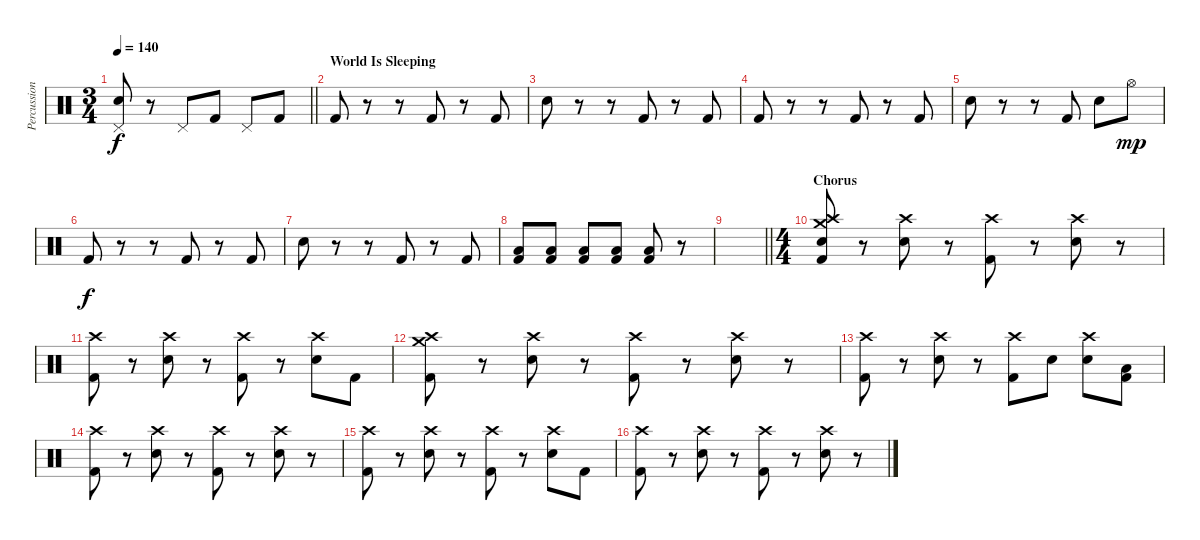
\track ("Percussion" "Percussion") {instrument percussion}
\staff {score}
\articulation defaults
\ts (3 4)
\tempo 140
\clef neutral
\barLineRight lightlight
\ks c
("Pedal Hi-Hat (hit)" "Electric Snare (hit)").8{dy f} r.8 "Pedal Hi-Hat (hit)".8 "Kick (hit) 2".8 "Pedal Hi-Hat (hit)".8 "Kick (hit) 2".8 |
\section ("" "World Is Sleeping")
"Kick (hit) 2".8 r.8 r.8 "Kick (hit) 2".8 r.8 "Kick (hit) 2".8 |
"Electric Snare (hit)".8 r.8 r.8 "Kick (hit) 2".8 r.8 "Kick (hit) 2".8 |
"Kick (hit) 2".8 r.8 r.8 "Kick (hit) 2".8 r.8 "Kick (hit) 2".8 |
"Electric Snare (hit)".8 r.8 r.8 "Kick (hit) 2".8 "Electric Snare (hit)".8 "Hi-Hat (open)".8{dy mp} |
"Kick (hit) 2".8{dy f} r.8 r.8 "Kick (hit) 2".8 r.8 "Kick (hit) 2".8 |
"Electric Snare (hit)".8 r.8 r.8 "Kick (hit) 2".8 r.8 "Kick (hit) 2".8 |
("Low Floor Tom (hit)" "Kick (hit) 2").8 ("Low Floor Tom (hit)" "Kick (hit) 2").8 ("Low Floor Tom (hit)" "Kick (hit) 2").8 ("Low Floor Tom (hit)" "Kick (hit) 2").8 ("Low Floor Tom (hit)" "Kick (hit) 2").8 r.8 |
\barLineRight lightlight
|
\ts (4 4)
\section ("" "Chorus")
("Crash high (hit)" "Crash medium (hit)" "Snare (hit)" "Kick (hit) 2").8 r.8 ("Electric Snare (hit)" "Crash high (hit)").8 r.8 ("Crash high (hit)" "Kick (hit) 2").8 r.8 ("Electric Snare (hit)" "Crash high (hit)").8 r.8 |
("Crash high (hit)" "Kick (hit) 2").8 r.8 ("Electric Snare (hit)" "Crash high (hit)").8 r.8 ("Crash high (hit)" "Kick (hit) 2").8 r.8 ("Electric Snare (hit)" "Crash high (hit)").8 "Kick (hit) 2".8 |
("Crash high (hit)" "Crash medium (hit)" "Kick (hit) 2").8 r.8 ("Electric Snare (hit)" "Crash high (hit)").8 r.8 ("Crash high (hit)" "Kick (hit) 2").8 r.8 ("Electric Snare (hit)" "Crash high (hit)").8 r.8 |
("Crash high (hit)" "Kick (hit) 2").8 r.8 ("Electric Snare (hit)" "Crash high (hit)").8 r.8 ("Crash high (hit)" "Kick (hit) 2").8 "Electric Snare (hit)".8 ("Electric Snare (hit)" "Crash high (hit)").8 ("Low Floor Tom (hit)" "Kick (hit) 2").8 |
("Crash high (hit)" "Kick (hit) 2").8 r.8 ("Electric Snare (hit)" "Crash high (hit)").8 r.8 ("Crash high (hit)" "Kick (hit) 2").8 r.8 ("Electric Snare (hit)" "Crash high (hit)").8 r.8 |
("Crash high (hit)" "Kick (hit) 2").8 r.8 ("Electric Snare (hit)" "Crash high (hit)").8 r.8 ("Crash high (hit)" "Kick (hit) 2").8 r.8 ("Electric Snare (hit)" "Crash high (hit)").8 "Kick (hit) 2".8 |
("Crash high (hit)" "Kick (hit) 2").8 r.8 ("Electric Snare (hit)" "Crash high (hit)").8 r.8 ("Crash high (hit)" "Kick (hit) 2").8 r.8 ("Electric Snare (hit)" "Crash high (hit)").8 r.8
